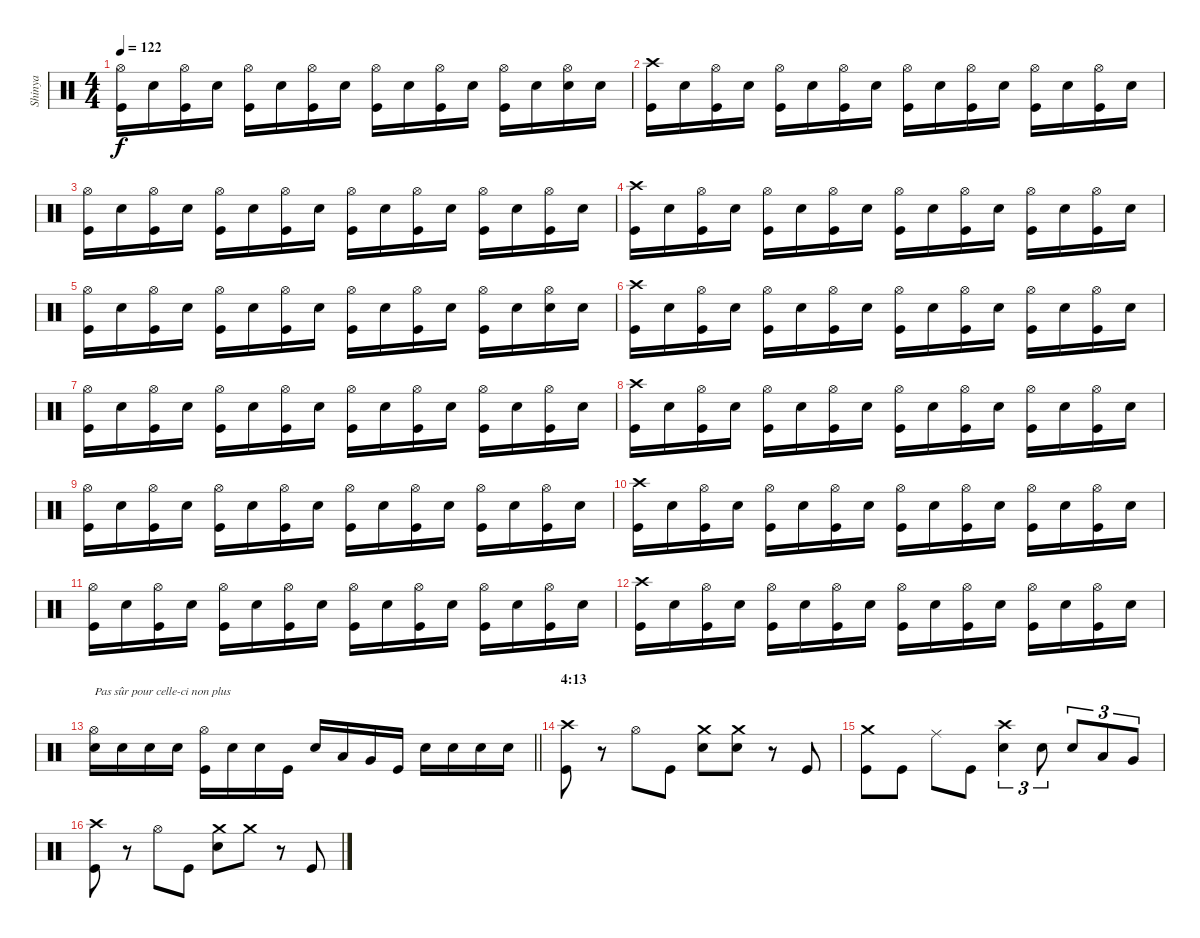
\track ("Shinya" "Shinya") {instrument percussion}
\staff {score}
\articulation defaults
\ts (4 4)
\tempo 122
\clef neutral
\ks c
("Hi-Hat (open)" "Kick (hit)").16{dy f} "Snare (hit) 2".16 ("Hi-Hat (open)" "Kick (hit)").16 "Snare (hit) 2".16 ("Hi-Hat (open)" "Kick (hit)").16 "Snare (hit) 2".16 ("Hi-Hat (open)" "Kick (hit)").16 "Snare (hit) 2".16 ("Hi-Hat (open)" "Kick (hit)").16 "Snare (hit) 2".16 ("Hi-Hat (open)" "Kick (hit)").16 "Snare (hit) 2".16 ("Hi-Hat (open)" "Kick (hit)").16 "Snare (hit) 2".16 ("Hi-Hat (open)" "Snare (hit) 2").16 "Snare (hit) 2".16 |
("Crash high (hit)" "Kick (hit)").16 "Snare (hit) 2".16 ("Hi-Hat (open)" "Kick (hit)").16 "Snare (hit) 2".16 ("Hi-Hat (open)" "Kick (hit)").16 "Snare (hit) 2".16 ("Hi-Hat (open)" "Kick (hit)").16 "Snare (hit) 2".16 ("Hi-Hat (open)" "Kick (hit)").16 "Snare (hit) 2".16 ("Hi-Hat (open)" "Kick (hit)").16 "Snare (hit) 2".16 ("Hi-Hat (open)" "Kick (hit)").16 "Snare (hit) 2".16 ("Hi-Hat (open)" "Kick (hit)").16 "Snare (hit) 2".16 |
("Hi-Hat (open)" "Kick (hit)").16 "Snare (hit) 2".16 ("Hi-Hat (open)" "Kick (hit)").16 "Snare (hit) 2".16 ("Hi-Hat (open)" "Kick (hit)").16 "Snare (hit) 2".16 ("Hi-Hat (open)" "Kick (hit)").16 "Snare (hit) 2".16 ("Hi-Hat (open)" "Kick (hit)").16 "Snare (hit) 2".16 ("Hi-Hat (open)" "Kick (hit)").16 "Snare (hit) 2".16 ("Hi-Hat (open)" "Kick (hit)").16 "Snare (hit) 2".16 ("Hi-Hat (open)" "Kick (hit)").16 "Snare (hit) 2".16 |
("Crash high (hit)" "Kick (hit)").16 "Snare (hit) 2".16 ("Hi-Hat (open)" "Kick (hit)").16 "Snare (hit) 2".16 ("Hi-Hat (open)" "Kick (hit)").16 "Snare (hit) 2".16 ("Hi-Hat (open)" "Kick (hit)").16 "Snare (hit) 2".16 ("Hi-Hat (open)" "Kick (hit)").16 "Snare (hit) 2".16 ("Hi-Hat (open)" "Kick (hit)").16 "Snare (hit) 2".16 ("Hi-Hat (open)" "Kick (hit)").16 "Snare (hit) 2".16 ("Hi-Hat (open)" "Kick (hit)").16 "Snare (hit) 2".16 |
("Hi-Hat (open)" "Kick (hit)").16 "Snare (hit) 2".16 ("Hi-Hat (open)" "Kick (hit)").16 "Snare (hit) 2".16 ("Hi-Hat (open)" "Kick (hit)").16 "Snare (hit) 2".16 ("Hi-Hat (open)" "Kick (hit)").16 "Snare (hit) 2".16 ("Hi-Hat (open)" "Kick (hit)").16 "Snare (hit) 2".16 ("Hi-Hat (open)" "Kick (hit)").16 "Snare (hit) 2".16 ("Hi-Hat (open)" "Kick (hit)").16 "Snare (hit) 2".16 ("Hi-Hat (open)" "Snare (hit) 2").16 "Snare (hit) 2".16 |
("Crash high (hit)" "Kick (hit)").16 "Snare (hit) 2".16 ("Hi-Hat (open)" "Kick (hit)").16 "Snare (hit) 2".16 ("Hi-Hat (open)" "Kick (hit)").16 "Snare (hit) 2".16 ("Hi-Hat (open)" "Kick (hit)").16 "Snare (hit) 2".16 ("Hi-Hat (open)" "Kick (hit)").16 "Snare (hit) 2".16 ("Hi-Hat (open)" "Kick (hit)").16 "Snare (hit) 2".16 ("Hi-Hat (open)" "Kick (hit)").16 "Snare (hit) 2".16 ("Hi-Hat (open)" "Kick (hit)").16 "Snare (hit) 2".16 |
("Hi-Hat (open)" "Kick (hit)").16 "Snare (hit) 2".16 ("Hi-Hat (open)" "Kick (hit)").16 "Snare (hit) 2".16 ("Hi-Hat (open)" "Kick (hit)").16 "Snare (hit) 2".16 ("Hi-Hat (open)" "Kick (hit)").16 "Snare (hit) 2".16 ("Hi-Hat (open)" "Kick (hit)").16 "Snare (hit) 2".16 ("Hi-Hat (open)" "Kick (hit)").16 "Snare (hit) 2".16 ("Hi-Hat (open)" "Kick (hit)").16 "Snare (hit) 2".16 ("Hi-Hat (open)" "Kick (hit)").16 "Snare (hit) 2".16 |
("Crash high (hit)" "Kick (hit)").16 "Snare (hit) 2".16 ("Hi-Hat (open)" "Kick (hit)").16 "Snare (hit) 2".16 ("Hi-Hat (open)" "Kick (hit)").16 "Snare (hit) 2".16 ("Hi-Hat (open)" "Kick (hit)").16 "Snare (hit) 2".16 ("Hi-Hat (open)" "Kick (hit)").16 "Snare (hit) 2".16 ("Hi-Hat (open)" "Kick (hit)").16 "Snare (hit) 2".16 ("Hi-Hat (open)" "Kick (hit)").16 "Snare (hit) 2".16 ("Hi-Hat (open)" "Kick (hit)").16 "Snare (hit) 2".16 |
("Hi-Hat (open)" "Kick (hit)").16 "Snare (hit) 2".16 ("Hi-Hat (open)" "Kick (hit)").16 "Snare (hit) 2".16 ("Hi-Hat (open)" "Kick (hit)").16 "Snare (hit) 2".16 ("Hi-Hat (open)" "Kick (hit)").16 "Snare (hit) 2".16 ("Hi-Hat (open)" "Kick (hit)").16 "Snare (hit) 2".16 ("Hi-Hat (open)" "Kick (hit)").16 "Snare (hit) 2".16 ("Hi-Hat (open)" "Kick (hit)").16 "Snare (hit) 2".16 ("Hi-Hat (open)" "Kick (hit)").16 "Snare (hit) 2".16 |
("Crash high (hit)" "Kick (hit)").16 "Snare (hit) 2".16 ("Hi-Hat (open)" "Kick (hit)").16 "Snare (hit) 2".16 ("Hi-Hat (open)" "Kick (hit)").16 "Snare (hit) 2".16 ("Hi-Hat (open)" "Kick (hit)").16 "Snare (hit) 2".16 ("Hi-Hat (open)" "Kick (hit)").16 "Snare (hit) 2".16 ("Hi-Hat (open)" "Kick (hit)").16 "Snare (hit) 2".16 ("Hi-Hat (open)" "Kick (hit)").16 "Snare (hit) 2".16 ("Hi-Hat (open)" "Kick (hit)").16 "Snare (hit) 2".16 |
("Hi-Hat (open)" "Kick (hit)").16 "Snare (hit) 2".16 ("Hi-Hat (open)" "Kick (hit)").16 "Snare (hit) 2".16 ("Hi-Hat (open)" "Kick (hit)").16 "Snare (hit) 2".16 ("Hi-Hat (open)" "Kick (hit)").16 "Snare (hit) 2".16 ("Hi-Hat (open)" "Kick (hit)").16 "Snare (hit) 2".16 ("Hi-Hat (open)" "Kick (hit)").16 "Snare (hit) 2".16 ("Hi-Hat (open)" "Kick (hit)").16 "Snare (hit) 2".16 ("Hi-Hat (open)" "Kick (hit)").16 "Snare (hit) 2".16 |
("Crash high (hit)" "Kick (hit)").16 "Snare (hit) 2".16 ("Hi-Hat (open)" "Kick (hit)").16 "Snare (hit) 2".16 ("Hi-Hat (open)" "Kick (hit)").16 "Snare (hit) 2".16 ("Hi-Hat (open)" "Kick (hit)").16 "Snare (hit) 2".16 ("Hi-Hat (open)" "Kick (hit)").16 "Snare (hit) 2".16 ("Hi-Hat (open)" "Kick (hit)").16 "Snare (hit) 2".16 ("Hi-Hat (open)" "Kick (hit)").16 "Snare (hit) 2".16 ("Hi-Hat (open)" "Kick (hit)").16 "Snare (hit) 2".16 |
\barLineRight lightlight
("Hi-Hat (open)" "Snare (hit) 2").16{txt "Pas sûr pour celle-ci non plus"} "Snare (hit) 2".16 "Snare (hit) 2".16 "Snare (hit) 2".16 ("Hi-Hat (open)" "Kick (hit)").16 "Snare (hit) 2".16 "Snare (hit) 2".16 "Kick (hit)".16 "Snare (hit) 2".16 "Low Tom (hit)".16 "Very Low Tom (hit)".16 "Kick (hit)".16 "Snare (hit) 2".16 "Snare (hit) 2".16 "Snare (hit) 2".16 "Snare (hit) 2".16 |
\section ("" "4:13")
("Crash high (hit)" "Kick (hit)").8 r.8 "Hi-Hat (open)".8 "Kick (hit)".8 ("Crash medium (hit)" "Snare (hit) 2").8 ("Crash medium (hit)" "Snare (hit) 2").8 r.8 "Kick (hit)".8 |
("Crash medium (hit)" "Kick (hit)").8 "Kick (hit)".8 "Ride (middle)".8 "Kick (hit)".8 ("Crash high (hit)" "Snare (hit) 2").4{tu (3 2)} "Snare (hit) 2".8{tu (3 2)} "Snare (hit) 2".8{tu (3 2)} "Low Tom (hit)".8{tu (3 2)} "Very Low Tom (hit)".8{tu (3 2)} |
("Crash high (hit)" "Kick (hit)").8 r.8 "Hi-Hat (open)".8 "Kick (hit)".8 ("Crash medium (hit)" "Snare (hit) 2").8 "Crash medium (hit)".8 r.8 "Kick (hit)".8
